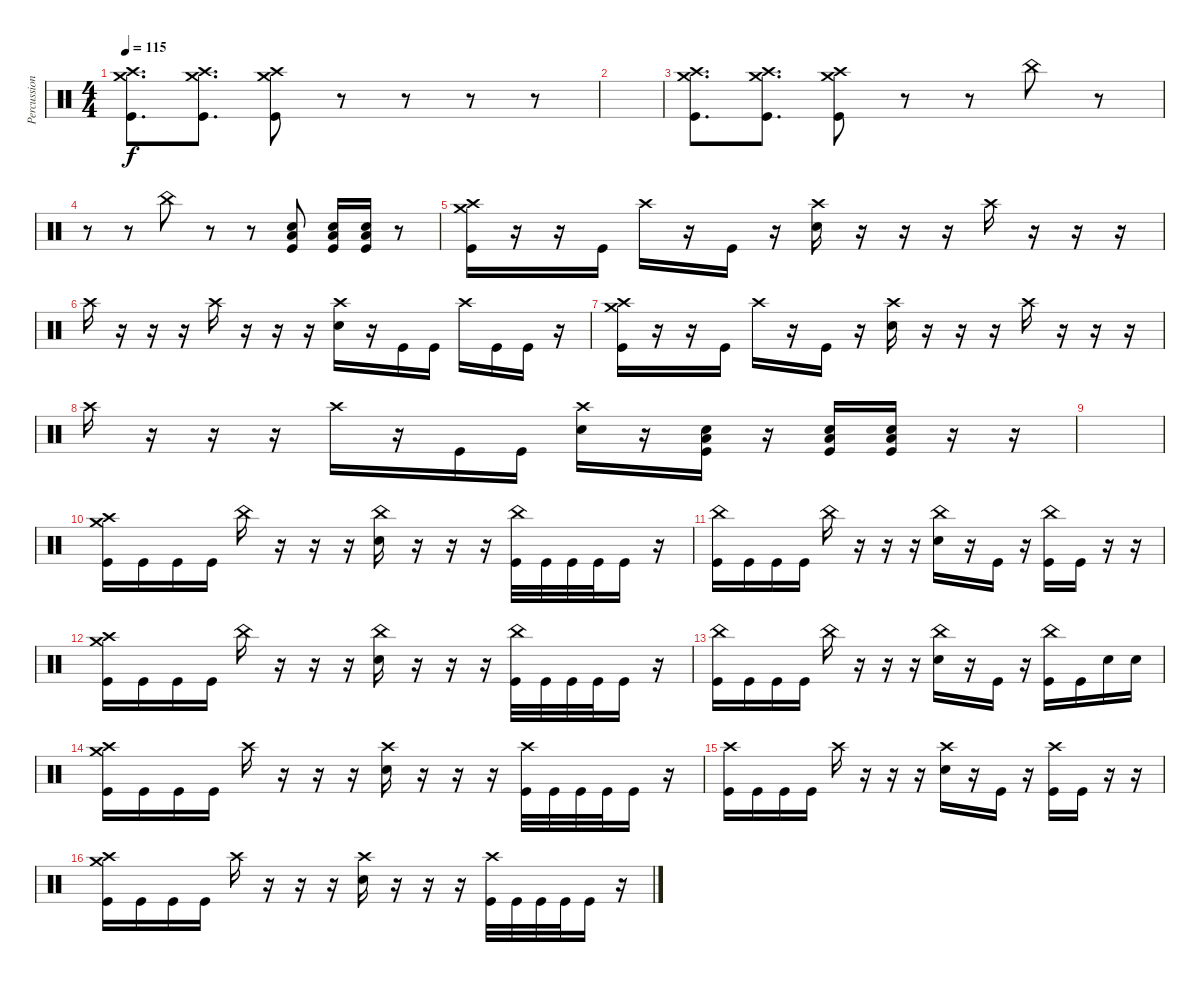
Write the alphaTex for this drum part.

\track ("Percussion" "Percussion") {instrument percussion}
\staff {score}
\articulation defaults
\ts (4 4)
\tempo 115
\clef neutral
\ks c
("Crash medium (hit)" "Crash high (hit)" "Kick (hit)").8{d dy f} ("Crash medium (hit)" "Crash high (hit)" "Kick (hit)").8{d} ("Crash medium (hit)" "Crash high (hit)" "Kick (hit)").8 r.8 r.8 r.8 r.8 |
|
("Crash medium (hit)" "Crash high (hit)" "Kick (hit)").8{d} ("Crash medium (hit)" "Crash high (hit)" "Kick (hit)").8{d} ("Crash medium (hit)" "Crash high (hit)" "Kick (hit)").8 r.8 r.8 "China (hit)".8 r.8 |
r.8 r.8 "China (hit)".8 r.8 r.8 ("Snare (hit) 2" "Low Floor Tom (hit)" "Kick (hit)").8 ("Snare (hit) 2" "Low Floor Tom (hit)" "Kick (hit)").16 ("Snare (hit) 2" "Low Floor Tom (hit)" "Kick (hit)").16 r.8 |
("Crash medium (hit)" "Crash high (hit)" "Kick (hit)").16 r.16 r.16 "Kick (hit)".16 "Crash high (hit)".16 r.16 "Kick (hit)".16 r.16 ("Crash high (hit)" "Snare (hit) 2").16 r.16 r.16 r.16 "Crash high (hit)".16 r.16 r.16 r.16 |
"Crash high (hit)".16 r.16 r.16 r.16 "Crash high (hit)".16 r.16 r.16 r.16 ("Crash high (hit)" "Snare (hit) 2").16 r.16 "Kick (hit)".16 "Kick (hit)".16 "Crash high (hit)".16 "Kick (hit)".16 "Kick (hit)".16 r.16 |
("Crash medium (hit)" "Crash high (hit)" "Kick (hit)").16 r.16 r.16 "Kick (hit)".16 "Crash high (hit)".16 r.16 "Kick (hit)".16 r.16 ("Crash high (hit)" "Snare (hit) 2").16 r.16 r.16 r.16 "Crash high (hit)".16 r.16 r.16 r.16 |
"Crash high (hit)".16 r.16 r.16 r.16 "Crash high (hit)".16 r.16 "Kick (hit)".16 "Kick (hit)".16 ("Crash high (hit)" "Snare (hit) 2").16 r.16 ("Snare (hit) 2" "Low Floor Tom (hit)" "Kick (hit)").16 r.16 ("Snare (hit) 2" "Low Floor Tom (hit)" "Kick (hit)").16 ("Snare (hit) 2" "Low Floor Tom (hit)" "Kick (hit)").16 r.16 r.16 |
|
("Crash medium (hit)" "Crash high (hit)" "Kick (hit)").16 "Kick (hit)".16 "Kick (hit)".16 "Kick (hit)".16 "China (hit)".16 r.16 r.16 r.16 ("China (hit)" "Snare (hit) 2").16 r.16 r.16 r.16 ("China (hit)" "Kick (hit)").32 "Kick (hit)".32 "Kick (hit)".32 "Kick (hit)".32 "Kick (hit)".16 r.16 |
("China (hit)" "Kick (hit)").16 "Kick (hit)".16 "Kick (hit)".16 "Kick (hit)".16 "China (hit)".16 r.16 r.16 r.16 ("China (hit)" "Snare (hit) 2").16 r.16 "Kick (hit)".16 r.16 ("China (hit)" "Kick (hit)").16 "Kick (hit)".16 r.16 r.16 |
("Crash medium (hit)" "Crash high (hit)" "Kick (hit)").16 "Kick (hit)".16 "Kick (hit)".16 "Kick (hit)".16 "China (hit)".16 r.16 r.16 r.16 ("China (hit)" "Snare (hit) 2").16 r.16 r.16 r.16 ("China (hit)" "Kick (hit)").32 "Kick (hit)".32 "Kick (hit)".32 "Kick (hit)".32 "Kick (hit)".16 r.16 |
("China (hit)" "Kick (hit)").16 "Kick (hit)".16 "Kick (hit)".16 "Kick (hit)".16 "China (hit)".16 r.16 r.16 r.16 ("China (hit)" "Snare (hit) 2").16 r.16 "Kick (hit)".16 r.16 ("China (hit)" "Kick (hit)").16 "Kick (hit)".16 "Snare (hit) 2".16 "Snare (hit) 2".16 |
("Crash medium (hit)" "Crash high (hit)" "Kick (hit)").16 "Kick (hit)".16 "Kick (hit)".16 "Kick (hit)".16 "Crash high (hit)".16 r.16 r.16 r.16 ("Crash high (hit)" "Snare (hit) 2").16 r.16 r.16 r.16 ("Crash high (hit)" "Kick (hit)").32 "Kick (hit)".32 "Kick (hit)".32 "Kick (hit)".32 "Kick (hit)".16 r.16 |
("Crash high (hit)" "Kick (hit)").16 "Kick (hit)".16 "Kick (hit)".16 "Kick (hit)".16 "Crash high (hit)".16 r.16 r.16 r.16 ("Crash high (hit)" "Snare (hit) 2").16 r.16 "Kick (hit)".16 r.16 ("Crash high (hit)" "Kick (hit)").16 "Kick (hit)".16 r.16 r.16 |
("Crash medium (hit)" "Crash high (hit)" "Kick (hit)").16 "Kick (hit)".16 "Kick (hit)".16 "Kick (hit)".16 "Crash high (hit)".16 r.16 r.16 r.16 ("Crash high (hit)" "Snare (hit) 2").16 r.16 r.16 r.16 ("Crash high (hit)" "Kick (hit)").32 "Kick (hit)".32 "Kick (hit)".32 "Kick (hit)".32 "Kick (hit)".16 r.16
